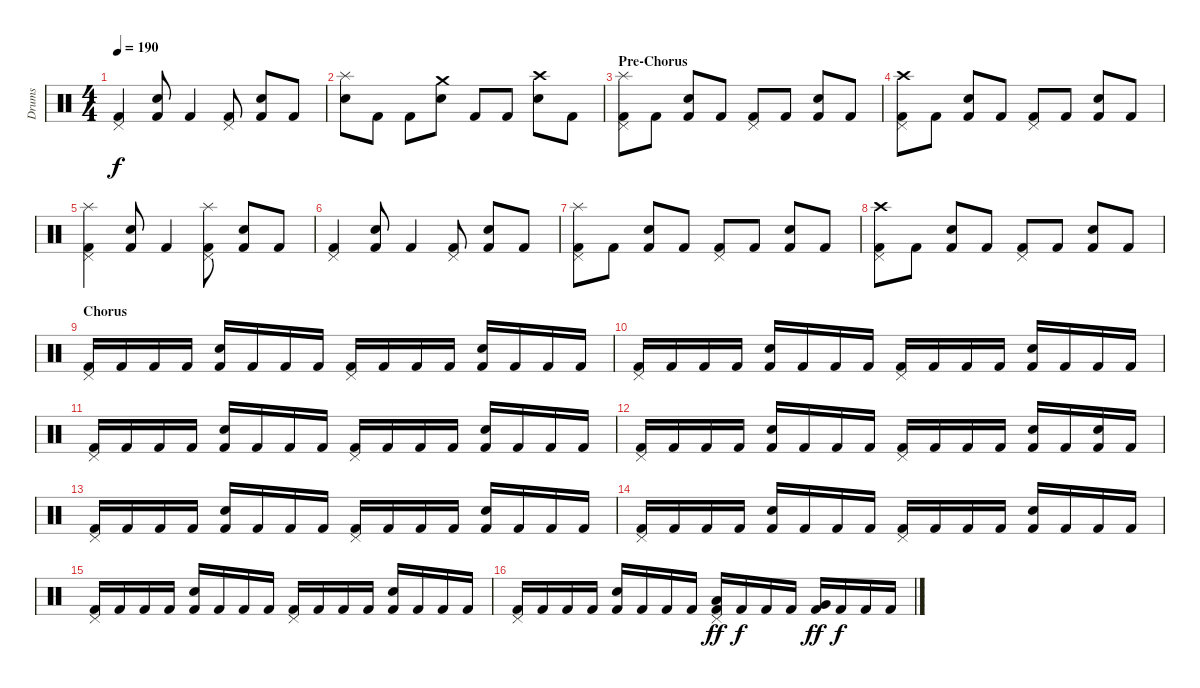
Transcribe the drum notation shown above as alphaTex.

\track ("Drums" "Drums") {instrument percussion}
\staff {score}
\articulation defaults
\ts (4 4)
\tempo 190
\clef neutral
\ks c
("Pedal Hi-Hat (hit)" "Kick (hit) 2").4{dy f} ("Electric Snare (hit)" "Kick (hit) 2").8 "Kick (hit) 2".4 ("Pedal Hi-Hat (hit)" "Kick (hit) 2").8 ("Electric Snare (hit)" "Kick (hit) 2").8 "Kick (hit) 2".8 |
("Splash (hit)" "Electric Snare (hit)").8 "Kick (hit) 2".8 "Kick (hit) 2".8 ("Crash medium (hit)" "Electric Snare (hit)").8 "Kick (hit) 2".8 "Kick (hit) 2".8 ("Crash high (hit)" "Electric Snare (hit)").8 "Kick (hit) 2".8 |
\section ("" "Pre-Chorus")
("Splash (hit)" "Pedal Hi-Hat (hit)" "Kick (hit) 2").8 "Kick (hit) 2".8 ("Electric Snare (hit)" "Kick (hit) 2").8 "Kick (hit) 2".8 ("Pedal Hi-Hat (hit)" "Kick (hit) 2").8 "Kick (hit) 2".8 ("Electric Snare (hit)" "Kick (hit) 2").8 "Kick (hit) 2".8 |
("Crash high (hit)" "Pedal Hi-Hat (hit)" "Kick (hit) 2").8 "Kick (hit) 2".8 ("Electric Snare (hit)" "Kick (hit) 2").8 "Kick (hit) 2".8 ("Pedal Hi-Hat (hit)" "Kick (hit) 2").8 "Kick (hit) 2".8 ("Electric Snare (hit)" "Kick (hit) 2").8 "Kick (hit) 2".8 |
("Pedal Hi-Hat (hit)" "Splash (hit)" "Kick (hit) 2").4 ("Electric Snare (hit)" "Kick (hit) 2").8 "Kick (hit) 2".4 ("Pedal Hi-Hat (hit)" "Splash (hit)" "Kick (hit) 2").8 ("Electric Snare (hit)" "Kick (hit) 2").8 "Kick (hit) 2".8 |
("Pedal Hi-Hat (hit)" "Kick (hit) 2").4 ("Electric Snare (hit)" "Kick (hit) 2").8 "Kick (hit) 2".4 ("Pedal Hi-Hat (hit)" "Kick (hit) 2").8 ("Electric Snare (hit)" "Kick (hit) 2").8 "Kick (hit) 2".8 |
("Splash (hit)" "Pedal Hi-Hat (hit)" "Kick (hit) 2").8 "Kick (hit) 2".8 ("Electric Snare (hit)" "Kick (hit) 2").8 "Kick (hit) 2".8 ("Pedal Hi-Hat (hit)" "Kick (hit) 2").8 "Kick (hit) 2".8 ("Electric Snare (hit)" "Kick (hit) 2").8 "Kick (hit) 2".8 |
("Crash high (hit)" "Pedal Hi-Hat (hit)" "Kick (hit) 2").8 "Kick (hit) 2".8 ("Electric Snare (hit)" "Kick (hit) 2").8 "Kick (hit) 2".8 ("Pedal Hi-Hat (hit)" "Kick (hit) 2").8 "Kick (hit) 2".8 ("Electric Snare (hit)" "Kick (hit) 2").8 "Kick (hit) 2".8 |
\section ("" "Chorus")
("Pedal Hi-Hat (hit)" "Kick (hit) 2").16 "Kick (hit) 2".16 "Kick (hit) 2".16 "Kick (hit) 2".16 ("Electric Snare (hit)" "Kick (hit) 2").16 "Kick (hit) 2".16 "Kick (hit) 2".16 "Kick (hit) 2".16 ("Pedal Hi-Hat (hit)" "Kick (hit) 2").16 "Kick (hit) 2".16 "Kick (hit) 2".16 "Kick (hit) 2".16 ("Electric Snare (hit)" "Kick (hit) 2").16 "Kick (hit) 2".16 "Kick (hit) 2".16 "Kick (hit) 2".16 |
("Pedal Hi-Hat (hit)" "Kick (hit) 2").16 "Kick (hit) 2".16 "Kick (hit) 2".16 "Kick (hit) 2".16 ("Electric Snare (hit)" "Kick (hit) 2").16 "Kick (hit) 2".16 "Kick (hit) 2".16 "Kick (hit) 2".16 ("Pedal Hi-Hat (hit)" "Kick (hit) 2").16 "Kick (hit) 2".16 "Kick (hit) 2".16 "Kick (hit) 2".16 ("Electric Snare (hit)" "Kick (hit) 2").16 "Kick (hit) 2".16 "Kick (hit) 2".16 "Kick (hit) 2".16 |
("Pedal Hi-Hat (hit)" "Kick (hit) 2").16 "Kick (hit) 2".16 "Kick (hit) 2".16 "Kick (hit) 2".16 ("Electric Snare (hit)" "Kick (hit) 2").16 "Kick (hit) 2".16 "Kick (hit) 2".16 "Kick (hit) 2".16 ("Pedal Hi-Hat (hit)" "Kick (hit) 2").16 "Kick (hit) 2".16 "Kick (hit) 2".16 "Kick (hit) 2".16 ("Electric Snare (hit)" "Kick (hit) 2").16 "Kick (hit) 2".16 "Kick (hit) 2".16 "Kick (hit) 2".16 |
("Pedal Hi-Hat (hit)" "Kick (hit) 2").16 "Kick (hit) 2".16 "Kick (hit) 2".16 "Kick (hit) 2".16 ("Electric Snare (hit)" "Kick (hit) 2").16 "Kick (hit) 2".16 "Kick (hit) 2".16 "Kick (hit) 2".16 ("Pedal Hi-Hat (hit)" "Kick (hit) 2").16 "Kick (hit) 2".16 "Kick (hit) 2".16 "Kick (hit) 2".16 ("Electric Snare (hit)" "Kick (hit) 2").16 "Kick (hit) 2".16 ("Electric Snare (hit)" "Kick (hit) 2").16 "Kick (hit) 2".16 |
("Pedal Hi-Hat (hit)" "Kick (hit) 2").16 "Kick (hit) 2".16 "Kick (hit) 2".16 "Kick (hit) 2".16 ("Electric Snare (hit)" "Kick (hit) 2").16 "Kick (hit) 2".16 "Kick (hit) 2".16 "Kick (hit) 2".16 ("Pedal Hi-Hat (hit)" "Kick (hit) 2").16 "Kick (hit) 2".16 "Kick (hit) 2".16 "Kick (hit) 2".16 ("Electric Snare (hit)" "Kick (hit) 2").16 "Kick (hit) 2".16 "Kick (hit) 2".16 "Kick (hit) 2".16 |
("Pedal Hi-Hat (hit)" "Kick (hit) 2").16 "Kick (hit) 2".16 "Kick (hit) 2".16 "Kick (hit) 2".16 ("Electric Snare (hit)" "Kick (hit) 2").16 "Kick (hit) 2".16 "Kick (hit) 2".16 "Kick (hit) 2".16 ("Pedal Hi-Hat (hit)" "Kick (hit) 2").16 "Kick (hit) 2".16 "Kick (hit) 2".16 "Kick (hit) 2".16 ("Electric Snare (hit)" "Kick (hit) 2").16 "Kick (hit) 2".16 "Kick (hit) 2".16 "Kick (hit) 2".16 |
("Pedal Hi-Hat (hit)" "Kick (hit) 2").16 "Kick (hit) 2".16 "Kick (hit) 2".16 "Kick (hit) 2".16 ("Electric Snare (hit)" "Kick (hit) 2").16 "Kick (hit) 2".16 "Kick (hit) 2".16 "Kick (hit) 2".16 ("Pedal Hi-Hat (hit)" "Kick (hit) 2").16 "Kick (hit) 2".16 "Kick (hit) 2".16 "Kick (hit) 2".16 ("Electric Snare (hit)" "Kick (hit) 2").16 "Kick (hit) 2".16 "Kick (hit) 2".16 "Kick (hit) 2".16 |
("Pedal Hi-Hat (hit)" "Kick (hit) 2").16 "Kick (hit) 2".16 "Kick (hit) 2".16 "Kick (hit) 2".16 ("Electric Snare (hit)" "Kick (hit) 2").16 "Kick (hit) 2".16 "Kick (hit) 2".16 "Kick (hit) 2".16 ("Pedal Hi-Hat (hit)" "Low Tom (hit)" "Kick (hit) 2").16{dy ff} "Kick (hit) 2".16{dy f} "Kick (hit) 2".16 "Kick (hit) 2".16 ("Very Low Tom (hit)" "Kick (hit) 2").16{dy ff} "Kick (hit) 2".16{dy f} "Kick (hit) 2".16 "Kick (hit) 2".16
